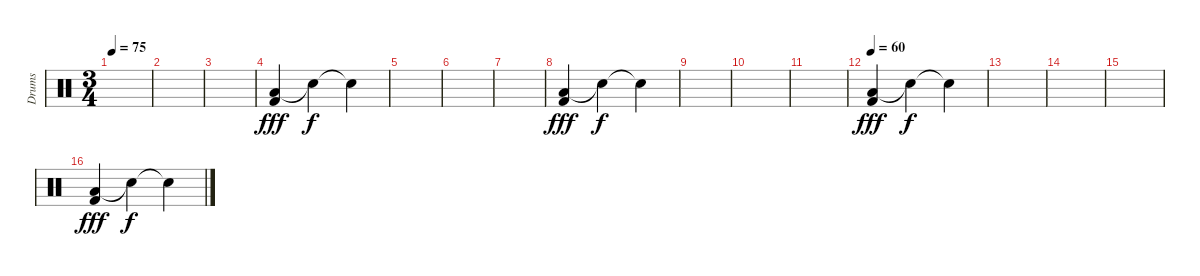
\track ("Drums" "Drums") {instrument percussion}
\staff {score}
\articulation defaults
\ts (3 4)
\tempo 75
\clef neutral
\ks c
|
|
|
("Low Tom (hit)" "Kick (hit) 2").4{dy fff} "Snare (hit)"{t}.4{dy f} "Snare (hit)"{t}.4 |
|
|
|
("Low Tom (hit)" "Kick (hit) 2").4{dy fff} "Snare (hit)"{t}.4{dy f} "Snare (hit)"{t}.4 |
|
|
|
\tempo 60
("Low Tom (hit)" "Kick (hit) 2").4{dy fff} "Snare (hit)"{t}.4{dy f} "Snare (hit)"{t}.4 |
|
|
|
("Low Tom (hit)" "Kick (hit) 2").4{dy fff} "Snare (hit)"{t}.4{dy f} "Snare (hit)"{t}.4
